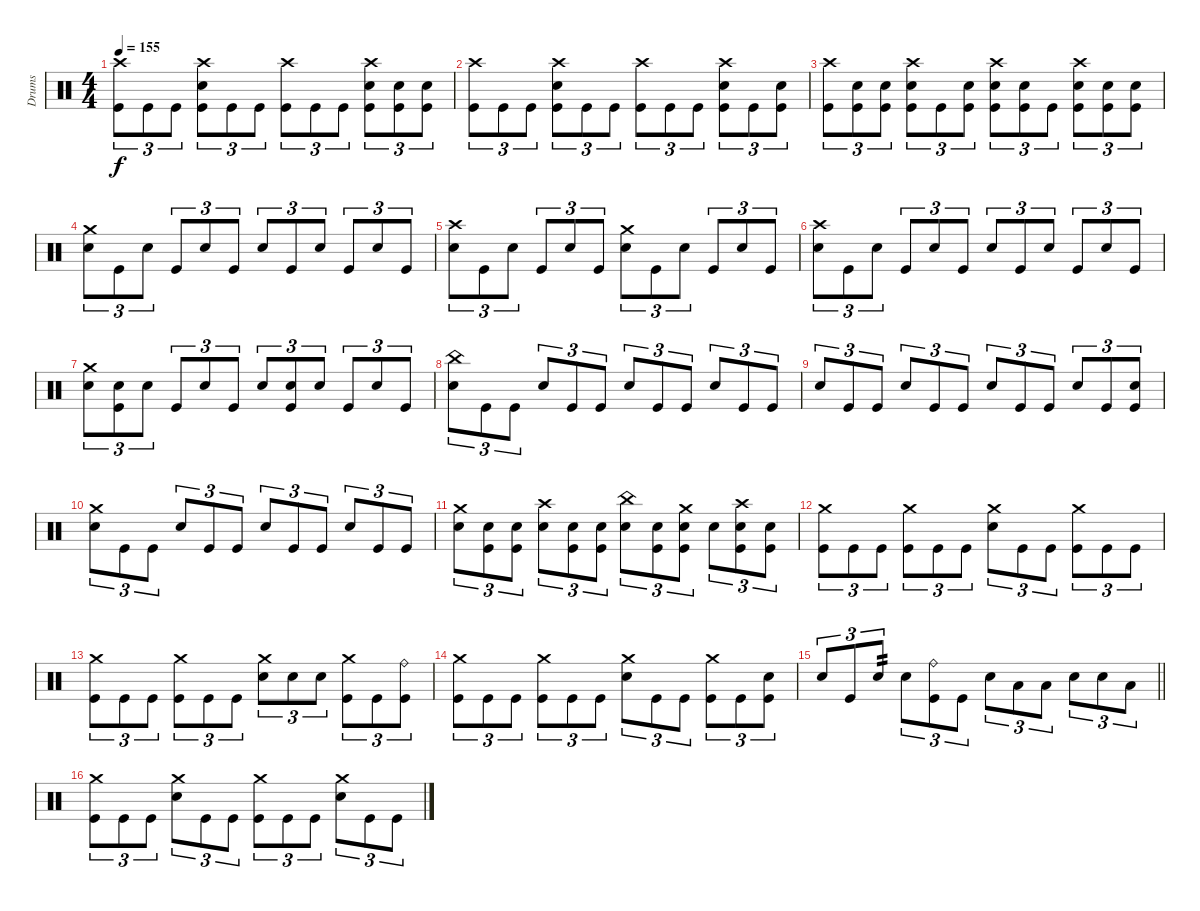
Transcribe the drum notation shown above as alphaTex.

\track ("Drums" "Drums") {instrument percussion}
\staff {score}
\articulation defaults
\ts (4 4)
\tempo 155
\clef neutral
\ks c
("Crash high (hit)" "Kick (hit)").8{tu (3 2) dy f} "Kick (hit)".8{tu (3 2)} "Kick (hit)".8{tu (3 2)} ("Crash high (hit)" "Electric Snare (hit)" "Kick (hit)").8{tu (3 2)} "Kick (hit)".8{tu (3 2)} "Kick (hit)".8{tu (3 2)} ("Crash high (hit)" "Kick (hit)").8{tu (3 2)} "Kick (hit)".8{tu (3 2)} "Kick (hit)".8{tu (3 2)} ("Crash high (hit)" "Electric Snare (hit)" "Kick (hit)").8{tu (3 2)} ("Electric Snare (hit)" "Kick (hit)").8{tu (3 2)} ("Electric Snare (hit)" "Kick (hit)").8{tu (3 2)} |
("Crash high (hit)" "Kick (hit)").8{tu (3 2)} "Kick (hit)".8{tu (3 2)} "Kick (hit)".8{tu (3 2)} ("Crash high (hit)" "Electric Snare (hit)" "Kick (hit)").8{tu (3 2)} "Kick (hit)".8{tu (3 2)} "Kick (hit)".8{tu (3 2)} ("Crash high (hit)" "Kick (hit)").8{tu (3 2)} "Kick (hit)".8{tu (3 2)} "Kick (hit)".8{tu (3 2)} ("Crash high (hit)" "Electric Snare (hit)" "Kick (hit)").8{tu (3 2)} "Kick (hit)".8{tu (3 2)} ("Electric Snare (hit)" "Kick (hit)").8{tu (3 2)} |
("Crash high (hit)" "Kick (hit)").8{tu (3 2)} ("Electric Snare (hit)" "Kick (hit)").8{tu (3 2)} ("Electric Snare (hit)" "Kick (hit)").8{tu (3 2)} ("Crash high (hit)" "Electric Snare (hit)" "Kick (hit)").8{tu (3 2)} "Kick (hit)".8{tu (3 2)} ("Electric Snare (hit)" "Kick (hit)").8{tu (3 2)} ("Crash high (hit)" "Electric Snare (hit)" "Kick (hit)").8{tu (3 2)} ("Electric Snare (hit)" "Kick (hit)").8{tu (3 2)} "Kick (hit)".8{tu (3 2)} ("Crash high (hit)" "Electric Snare (hit)" "Kick (hit)").8{tu (3 2)} ("Electric Snare (hit)" "Kick (hit)").8{tu (3 2)} ("Electric Snare (hit)" "Kick (hit)").8{tu (3 2)} |
("Crash medium (hit)" "Electric Snare (hit)").8{tu (3 2)} "Kick (hit)".8{tu (3 2)} "Electric Snare (hit)".8{tu (3 2)} "Kick (hit)".8{tu (3 2)} "Electric Snare (hit)".8{tu (3 2)} "Kick (hit)".8{tu (3 2)} "Electric Snare (hit)".8{tu (3 2)} "Kick (hit)".8{tu (3 2)} "Electric Snare (hit)".8{tu (3 2)} "Kick (hit)".8{tu (3 2)} "Electric Snare (hit)".8{tu (3 2)} "Kick (hit)".8{tu (3 2)} |
("Crash high (hit)" "Electric Snare (hit)").8{tu (3 2)} "Kick (hit)".8{tu (3 2)} "Electric Snare (hit)".8{tu (3 2)} "Kick (hit)".8{tu (3 2)} "Electric Snare (hit)".8{tu (3 2)} "Kick (hit)".8{tu (3 2)} ("Crash medium (hit)" "Electric Snare (hit)").8{tu (3 2)} "Kick (hit)".8{tu (3 2)} "Electric Snare (hit)".8{tu (3 2)} "Kick (hit)".8{tu (3 2)} "Electric Snare (hit)".8{tu (3 2)} "Kick (hit)".8{tu (3 2)} |
("Crash high (hit)" "Electric Snare (hit)").8{tu (3 2)} "Kick (hit)".8{tu (3 2)} "Electric Snare (hit)".8{tu (3 2)} "Kick (hit)".8{tu (3 2)} "Electric Snare (hit)".8{tu (3 2)} "Kick (hit)".8{tu (3 2)} "Electric Snare (hit)".8{tu (3 2)} "Kick (hit)".8{tu (3 2)} "Electric Snare (hit)".8{tu (3 2)} "Kick (hit)".8{tu (3 2)} "Electric Snare (hit)".8{tu (3 2)} "Kick (hit)".8{tu (3 2)} |
("Crash medium (hit)" "Electric Snare (hit)").8{tu (3 2)} ("Electric Snare (hit)" "Kick (hit)").8{tu (3 2)} "Electric Snare (hit)".8{tu (3 2)} "Kick (hit)".8{tu (3 2)} "Electric Snare (hit)".8{tu (3 2)} "Kick (hit)".8{tu (3 2)} "Electric Snare (hit)".8{tu (3 2)} ("Electric Snare (hit)" "Kick (hit)").8{tu (3 2)} "Electric Snare (hit)".8{tu (3 2)} "Kick (hit)".8{tu (3 2)} "Electric Snare (hit)".8{tu (3 2)} "Kick (hit)".8{tu (3 2)} |
("China (hit)" "Electric Snare (hit)").8{tu (3 2)} "Kick (hit)".8{tu (3 2)} "Kick (hit)".8{tu (3 2)} "Electric Snare (hit)".8{tu (3 2)} "Kick (hit)".8{tu (3 2)} "Kick (hit)".8{tu (3 2)} "Electric Snare (hit)".8{tu (3 2)} "Kick (hit)".8{tu (3 2)} "Kick (hit)".8{tu (3 2)} "Electric Snare (hit)".8{tu (3 2)} "Kick (hit)".8{tu (3 2)} "Kick (hit)".8{tu (3 2)} |
"Electric Snare (hit)".8{tu (3 2)} "Kick (hit)".8{tu (3 2)} "Kick (hit)".8{tu (3 2)} "Electric Snare (hit)".8{tu (3 2)} "Kick (hit)".8{tu (3 2)} "Kick (hit)".8{tu (3 2)} "Electric Snare (hit)".8{tu (3 2)} "Kick (hit)".8{tu (3 2)} "Kick (hit)".8{tu (3 2)} "Electric Snare (hit)".8{tu (3 2)} "Kick (hit)".8{tu (3 2)} ("Electric Snare (hit)" "Kick (hit)").8{tu (3 2)} |
("Crash medium (hit)" "Electric Snare (hit)").8{tu (3 2)} "Kick (hit)".8{tu (3 2)} "Kick (hit)".8{tu (3 2)} "Electric Snare (hit)".8{tu (3 2)} "Kick (hit)".8{tu (3 2)} "Kick (hit)".8{tu (3 2)} "Electric Snare (hit)".8{tu (3 2)} "Kick (hit)".8{tu (3 2)} "Kick (hit)".8{tu (3 2)} "Electric Snare (hit)".8{tu (3 2)} "Kick (hit)".8{tu (3 2)} "Kick (hit)".8{tu (3 2)} |
("Crash medium (hit)" "Electric Snare (hit)").8{tu (3 2)} ("Electric Snare (hit)" "Kick (hit)").8{tu (3 2)} ("Electric Snare (hit)" "Kick (hit)").8{tu (3 2)} ("Crash high (hit)" "Electric Snare (hit)").8{tu (3 2)} ("Electric Snare (hit)" "Kick (hit)").8{tu (3 2)} ("Electric Snare (hit)" "Kick (hit)").8{tu (3 2)} ("China (hit)" "Electric Snare (hit)").8{tu (3 2)} ("Electric Snare (hit)" "Kick (hit)").8{tu (3 2)} ("Crash medium (hit)" "Electric Snare (hit)" "Kick (hit)").8{tu (3 2)} "Electric Snare (hit)".8{tu (3 2)} ("Crash high (hit)" "Electric Snare (hit)" "Kick (hit)").8{tu (3 2)} ("Electric Snare (hit)" "Kick (hit)").8{tu (3 2)} |
("Crash medium (hit)" "Kick (hit)").8{tu (3 2)} "Kick (hit)".8{tu (3 2)} "Kick (hit)".8{tu (3 2)} ("Crash medium (hit)" "Kick (hit)").8{tu (3 2)} "Kick (hit)".8{tu (3 2)} "Kick (hit)".8{tu (3 2)} ("Crash medium (hit)" "Electric Snare (hit)").8{tu (3 2)} "Kick (hit)".8{tu (3 2)} "Kick (hit)".8{tu (3 2)} ("Crash medium (hit)" "Kick (hit)").8{tu (3 2)} "Kick (hit)".8{tu (3 2)} "Kick (hit)".8{tu (3 2)} |
("Crash medium (hit)" "Kick (hit)").8{tu (3 2)} "Kick (hit)".8{tu (3 2)} "Kick (hit)".8{tu (3 2)} ("Crash medium (hit)" "Kick (hit)").8{tu (3 2)} "Kick (hit)".8{tu (3 2)} "Kick (hit)".8{tu (3 2)} ("Crash medium (hit)" "Electric Snare (hit)").8{tu (3 2)} "Electric Snare (hit)".8{tu (3 2)} "Electric Snare (hit)".8{tu (3 2)} ("Crash medium (hit)" "Kick (hit)").8{tu (3 2)} "Kick (hit)".8{tu (3 2)} ("Ride (bell)" "Kick (hit)").8{tu (3 2)} |
("Crash medium (hit)" "Kick (hit)").8{tu (3 2)} "Kick (hit)".8{tu (3 2)} "Kick (hit)".8{tu (3 2)} ("Crash medium (hit)" "Kick (hit)").8{tu (3 2)} "Kick (hit)".8{tu (3 2)} "Kick (hit)".8{tu (3 2)} ("Crash medium (hit)" "Electric Snare (hit)").8{tu (3 2)} "Kick (hit)".8{tu (3 2)} "Kick (hit)".8{tu (3 2)} ("Crash medium (hit)" "Kick (hit)").8{tu (3 2)} "Kick (hit)".8{tu (3 2)} ("Electric Snare (hit)" "Kick (hit)").8{tu (3 2)} |
\barLineRight lightlight "Electric Snare (hit)".8{tu (3 2)} "Kick (hit)".8{tu (3 2)} "Electric Snare (hit)".8{tu (3 2) tp 2} "Electric Snare (hit)".8{tu (3 2)}
("Ride (bell)" "Kick (hit)").8{tu (3 2)} "Kick (hit)".8{tu (3 2)} "Electric Snare (hit)".8{tu (3 2)} "Low Tom (hit)".8{tu (3 2)} "Low Tom (hit)".8{tu (3 2)} "Electric Snare (hit)".8{tu (3 2)} "Electric Snare (hit)".8{tu (3 2)} "Low Tom (hit)".8{tu (3 2)} |
("Crash medium (hit)" "Kick (hit)").8{tu (3 2)} "Kick (hit)".8{tu (3 2)} "Kick (hit)".8{tu (3 2)} ("Crash medium (hit)" "Electric Snare (hit)").8{tu (3 2)} "Kick (hit)".8{tu (3 2)} "Kick (hit)".8{tu (3 2)} ("Crash medium (hit)" "Kick (hit)").8{tu (3 2)} "Kick (hit)".8{tu (3 2)} "Kick (hit)".8{tu (3 2)} ("Crash medium (hit)" "Electric Snare (hit)").8{tu (3 2)} "Kick (hit)".8{tu (3 2)} "Kick (hit)".8{tu (3 2)}
